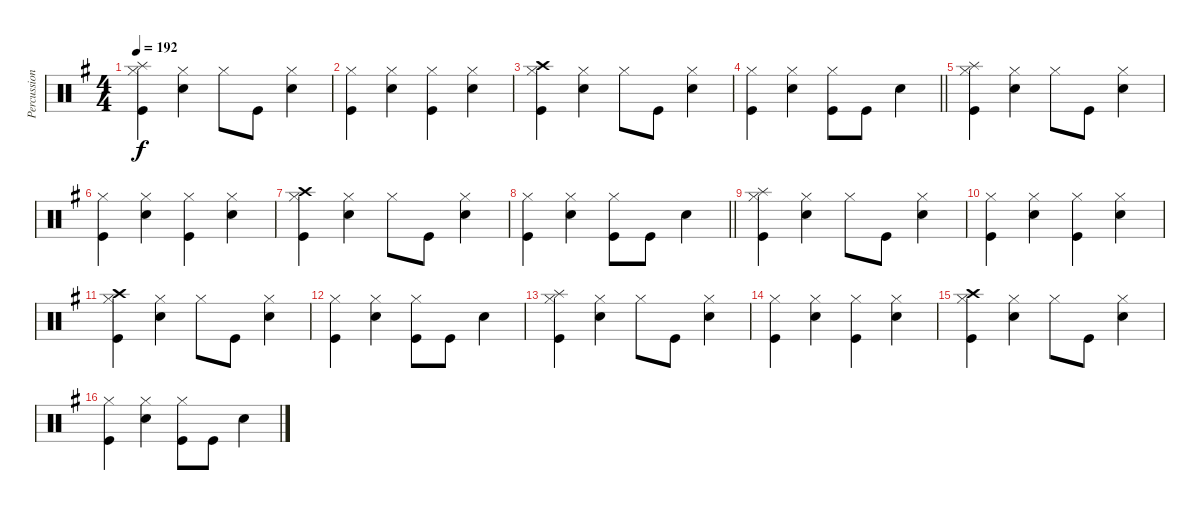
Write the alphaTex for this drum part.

\track ("Percussion" "Percussion") {instrument percussion}
\staff {score}
\articulation defaults
\ts (4 4)
\tempo 192
\clef neutral
\ks g
("Hi-Hat (closed)" "Splash (hit)" "Kick (hit)").4{dy f} ("Hi-Hat (closed)" "Snare (hit) 2").4 "Hi-Hat (closed)".8 "Kick (hit)".8 ("Snare (hit) 2" "Hi-Hat (closed)").4 |
("Hi-Hat (closed)" "Kick (hit)").4 ("Hi-Hat (closed)" "Snare (hit) 2").4 ("Hi-Hat (closed)" "Kick (hit)").4 ("Hi-Hat (closed)" "Snare (hit) 2").4 |
("Hi-Hat (closed)" "Crash high (hit)" "Kick (hit)").4 ("Hi-Hat (closed)" "Snare (hit) 2").4 "Hi-Hat (closed)".8 "Kick (hit)".8 ("Snare (hit) 2" "Hi-Hat (closed)").4 |
\barLineRight lightlight
("Hi-Hat (closed)" "Kick (hit)").4 ("Hi-Hat (closed)" "Snare (hit) 2").4 ("Hi-Hat (closed)" "Kick (hit)").8 "Kick (hit)".8 "Snare (hit) 2".4 |
("Hi-Hat (closed)" "Splash (hit)" "Kick (hit)").4 ("Hi-Hat (closed)" "Snare (hit) 2").4 "Hi-Hat (closed)".8 "Kick (hit)".8 ("Snare (hit) 2" "Hi-Hat (closed)").4 |
("Hi-Hat (closed)" "Kick (hit)").4 ("Hi-Hat (closed)" "Snare (hit) 2").4 ("Hi-Hat (closed)" "Kick (hit)").4 ("Hi-Hat (closed)" "Snare (hit) 2").4 |
("Hi-Hat (closed)" "Crash high (hit)" "Kick (hit)").4 ("Hi-Hat (closed)" "Snare (hit) 2").4 "Hi-Hat (closed)".8 "Kick (hit)".8 ("Snare (hit) 2" "Hi-Hat (closed)").4 |
\barLineRight lightlight
("Hi-Hat (closed)" "Kick (hit)").4 ("Hi-Hat (closed)" "Snare (hit) 2").4 ("Hi-Hat (closed)" "Kick (hit)").8 "Kick (hit)".8 "Snare (hit) 2".4 |
("Hi-Hat (closed)" "Splash (hit)" "Kick (hit)").4 ("Hi-Hat (closed)" "Snare (hit) 2").4 "Hi-Hat (closed)".8 "Kick (hit)".8 ("Snare (hit) 2" "Hi-Hat (closed)").4 |
("Hi-Hat (closed)" "Kick (hit)").4 ("Hi-Hat (closed)" "Snare (hit) 2").4 ("Hi-Hat (closed)" "Kick (hit)").4 ("Hi-Hat (closed)" "Snare (hit) 2").4 |
("Hi-Hat (closed)" "Crash high (hit)" "Kick (hit)").4 ("Hi-Hat (closed)" "Snare (hit) 2").4 "Hi-Hat (closed)".8 "Kick (hit)".8 ("Snare (hit) 2" "Hi-Hat (closed)").4 |
("Hi-Hat (closed)" "Kick (hit)").4 ("Hi-Hat (closed)" "Snare (hit) 2").4 ("Hi-Hat (closed)" "Kick (hit)").8 "Kick (hit)".8 "Snare (hit) 2".4 |
("Hi-Hat (closed)" "Splash (hit)" "Kick (hit)").4 ("Hi-Hat (closed)" "Snare (hit) 2").4 "Hi-Hat (closed)".8 "Kick (hit)".8 ("Snare (hit) 2" "Hi-Hat (closed)").4 |
("Hi-Hat (closed)" "Kick (hit)").4 ("Hi-Hat (closed)" "Snare (hit) 2").4 ("Hi-Hat (closed)" "Kick (hit)").4 ("Hi-Hat (closed)" "Snare (hit) 2").4 |
("Hi-Hat (closed)" "Crash high (hit)" "Kick (hit)").4 ("Hi-Hat (closed)" "Snare (hit) 2").4 "Hi-Hat (closed)".8 "Kick (hit)".8 ("Snare (hit) 2" "Hi-Hat (closed)").4 |
("Hi-Hat (closed)" "Kick (hit)").4 ("Hi-Hat (closed)" "Snare (hit) 2").4 ("Hi-Hat (closed)" "Kick (hit)").8 "Kick (hit)".8 "Snare (hit) 2".4
